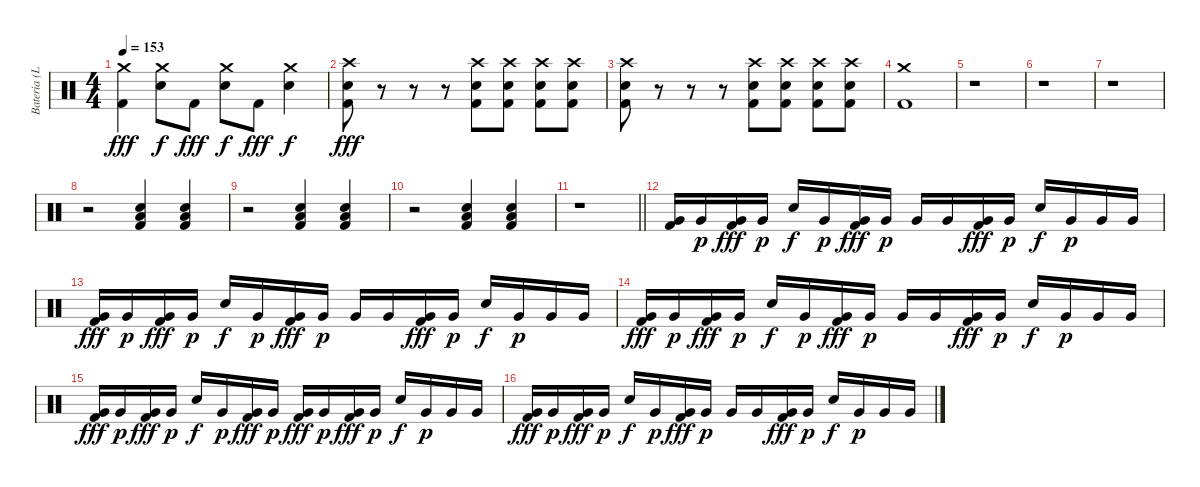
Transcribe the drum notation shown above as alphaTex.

\track ("Bateria (Lars)" "Bateria (L") {instrument percussion}
\staff {score}
\articulation defaults
\ts (4 4)
\tempo 153
\clef neutral
\ks c
("Crash medium (hit)" "Kick (hit) 2").4{dy fff} ("Crash medium (hit)" "Electric Snare (hit)").8{dy f} "Kick (hit) 2".8{dy fff} ("Crash medium (hit)" "Electric Snare (hit)").8{dy f} "Kick (hit) 2".8{dy fff} ("Crash medium (hit)" "Electric Snare (hit)").4{dy f} |
("Crash high (hit)" "Electric Snare (hit)" "Kick (hit) 2").8{dy fff} r.8 r.8 r.8 ("Crash high (hit)" "Electric Snare (hit)" "Kick (hit) 2").8 ("Crash high (hit)" "Electric Snare (hit)" "Kick (hit) 2").8 ("Crash high (hit)" "Electric Snare (hit)" "Kick (hit) 2").8 ("Crash high (hit)" "Electric Snare (hit)" "Kick (hit) 2").8 |
("Crash high (hit)" "Electric Snare (hit)" "Kick (hit) 2").8 r.8 r.8 r.8 ("Crash high (hit)" "Electric Snare (hit)" "Kick (hit) 2").8 ("Crash high (hit)" "Electric Snare (hit)" "Kick (hit) 2").8 ("Crash high (hit)" "Electric Snare (hit)" "Kick (hit) 2").8 ("Crash high (hit)" "Electric Snare (hit)" "Kick (hit) 2").8 |
("Crash medium (hit)" "Kick (hit) 2").1 |
r.1 |
r.1 |
r.1 |
r.2 ("Low Floor Tom (hit)" "Electric Snare (hit)" "Kick (hit) 2").4 ("Low Floor Tom (hit)" "Electric Snare (hit)" "Kick (hit) 2").4 |
r.2 ("Low Floor Tom (hit)" "Electric Snare (hit)" "Kick (hit) 2").4 ("Low Floor Tom (hit)" "Electric Snare (hit)" "Kick (hit) 2").4 |
r.2 ("Low Floor Tom (hit)" "Electric Snare (hit)" "Kick (hit) 2").4 ("Low Floor Tom (hit)" "Electric Snare (hit)" "Kick (hit) 2").4 |
\barLineRight lightlight
r.1 |
("Very Low Tom (hit)" "Kick (hit) 2").16 "Very Low Tom (hit)".16{dy p} ("Very Low Tom (hit)" "Kick (hit) 2").16{dy fff} "Very Low Tom (hit)".16{dy p} "Electric Snare (hit)".16{dy f} "Very Low Tom (hit)".16{dy p} ("Very Low Tom (hit)" "Kick (hit) 2").16{dy fff} "Very Low Tom (hit)".16{dy p} "Very Low Tom (hit)".16 "Very Low Tom (hit)".16 ("Very Low Tom (hit)" "Kick (hit) 2").16{dy fff} "Very Low Tom (hit)".16{dy p} "Electric Snare (hit)".16{dy f} "Very Low Tom (hit)".16{dy p} "Very Low Tom (hit)".16 "Very Low Tom (hit)".16 |
("Very Low Tom (hit)" "Kick (hit) 2").16{dy fff} "Very Low Tom (hit)".16{dy p} ("Very Low Tom (hit)" "Kick (hit) 2").16{dy fff} "Very Low Tom (hit)".16{dy p} "Electric Snare (hit)".16{dy f} "Very Low Tom (hit)".16{dy p} ("Very Low Tom (hit)" "Kick (hit) 2").16{dy fff} "Very Low Tom (hit)".16{dy p} "Very Low Tom (hit)".16 "Very Low Tom (hit)".16 ("Very Low Tom (hit)" "Kick (hit) 2").16{dy fff} "Very Low Tom (hit)".16{dy p} "Electric Snare (hit)".16{dy f} "Very Low Tom (hit)".16{dy p} "Very Low Tom (hit)".16 "Very Low Tom (hit)".16 |
("Very Low Tom (hit)" "Kick (hit) 2").16{dy fff} "Very Low Tom (hit)".16{dy p} ("Very Low Tom (hit)" "Kick (hit) 2").16{dy fff} "Very Low Tom (hit)".16{dy p} "Electric Snare (hit)".16{dy f} "Very Low Tom (hit)".16{dy p} ("Very Low Tom (hit)" "Kick (hit) 2").16{dy fff} "Very Low Tom (hit)".16{dy p} "Very Low Tom (hit)".16 "Very Low Tom (hit)".16 ("Very Low Tom (hit)" "Kick (hit) 2").16{dy fff} "Very Low Tom (hit)".16{dy p} "Electric Snare (hit)".16{dy f} "Very Low Tom (hit)".16{dy p} "Very Low Tom (hit)".16 "Very Low Tom (hit)".16 |
("Very Low Tom (hit)" "Kick (hit) 2").16{dy fff} "Very Low Tom (hit)".16{dy p} ("Very Low Tom (hit)" "Kick (hit) 2").16{dy fff} "Very Low Tom (hit)".16{dy p} "Electric Snare (hit)".16{dy f} "Very Low Tom (hit)".16{dy p} ("Very Low Tom (hit)" "Kick (hit) 2").16{dy fff} "Very Low Tom (hit)".16{dy p} ("Very Low Tom (hit)" "Kick (hit) 2").16{dy fff} "Very Low Tom (hit)".16{dy p} ("Very Low Tom (hit)" "Kick (hit) 2").16{dy fff} "Very Low Tom (hit)".16{dy p} "Electric Snare (hit)".16{dy f} "Very Low Tom (hit)".16{dy p} "Very Low Tom (hit)".16 "Very Low Tom (hit)".16 |
("Very Low Tom (hit)" "Kick (hit) 2").16{dy fff} "Very Low Tom (hit)".16{dy p} ("Very Low Tom (hit)" "Kick (hit) 2").16{dy fff} "Very Low Tom (hit)".16{dy p} "Electric Snare (hit)".16{dy f} "Very Low Tom (hit)".16{dy p} ("Very Low Tom (hit)" "Kick (hit) 2").16{dy fff} "Very Low Tom (hit)".16{dy p} "Very Low Tom (hit)".16 "Very Low Tom (hit)".16 ("Very Low Tom (hit)" "Kick (hit) 2").16{dy fff} "Very Low Tom (hit)".16{dy p} "Electric Snare (hit)".16{dy f} "Very Low Tom (hit)".16{dy p} "Very Low Tom (hit)".16 "Very Low Tom (hit)".16
